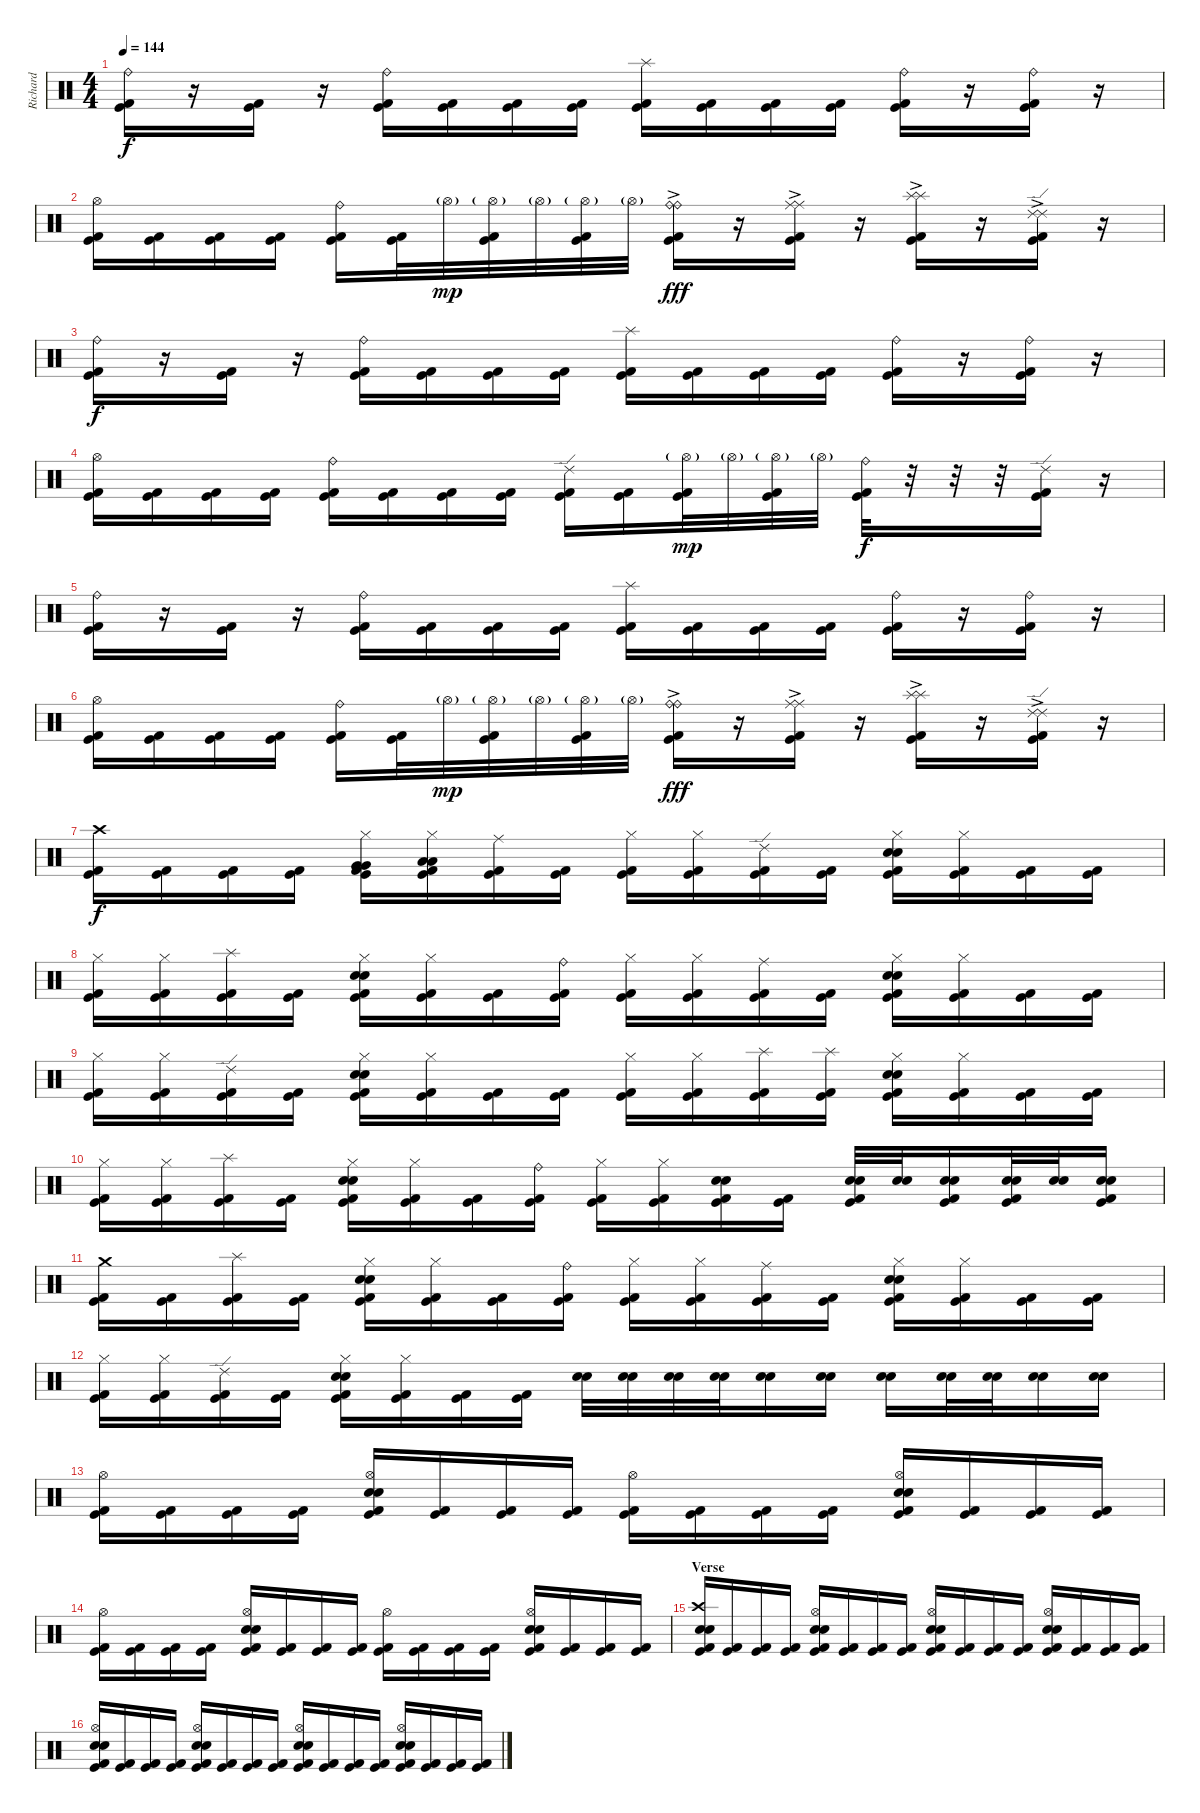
\track ("Richard" "Richard") {instrument percussion}
\staff {score}
\articulation defaults
\ts (4 4)
\tempo 144
\clef neutral
\ks c
("Ride (bell)" "Kick (hit)" "Kick (hit) 2").16{dy f} r.16 ("Kick (hit)" "Kick (hit) 2").16 r.16 ("Ride (bell)" "Kick (hit)" "Kick (hit) 2").16 ("Kick (hit)" "Kick (hit) 2").16 ("Kick (hit)" "Kick (hit) 2").16 ("Kick (hit)" "Kick (hit) 2").16 ("Splash (hit)" "Kick (hit)" "Kick (hit) 2").16 ("Kick (hit)" "Kick (hit) 2").16 ("Kick (hit)" "Kick (hit) 2").16 ("Kick (hit)" "Kick (hit) 2").16 ("Ride (bell)" "Kick (hit)" "Kick (hit) 2").16 r.16 ("Ride (bell)" "Kick (hit)" "Kick (hit) 2").16 r.16 |
("Hi-Hat (open)" "Kick (hit)" "Kick (hit) 2").16 ("Kick (hit)" "Kick (hit) 2").16 ("Kick (hit)" "Kick (hit) 2").16 ("Kick (hit)" "Kick (hit) 2").16 ("Ride (bell)" "Kick (hit)" "Kick (hit) 2").16 ("Kick (hit)" "Kick (hit) 2").32 "Hi-Hat (open)"{g}.32{dy mp} ("Hi-Hat (open)"{g} "Kick (hit)" "Kick (hit) 2").32 "Hi-Hat (open)"{g}.32 ("Hi-Hat (open)"{g} "Kick (hit)" "Kick (hit) 2").32 "Hi-Hat (open)"{g}.32 ("Ride (bell)"{ac} "Ride (bell)"{ac} "Kick (hit)" "Kick (hit) 2").16{dy fff} r.16 ("Ride (middle)"{ac} "Ride (middle)"{ac} "Kick (hit)" "Kick (hit) 2").16 r.16 ("Splash (hit)"{ac} "Splash (hit)"{ac} "Kick (hit)" "Kick (hit) 2").16 r.16 ("Ride (edge) 2"{ac} "Ride (edge) 2"{ac} "Kick (hit)" "Kick (hit) 2").16 r.16 |
("Ride (bell)" "Kick (hit)" "Kick (hit) 2").16{dy f} r.16 ("Kick (hit)" "Kick (hit) 2").16 r.16 ("Ride (bell)" "Kick (hit)" "Kick (hit) 2").16 ("Kick (hit)" "Kick (hit) 2").16 ("Kick (hit)" "Kick (hit) 2").16 ("Kick (hit)" "Kick (hit) 2").16 ("Splash (hit)" "Kick (hit)" "Kick (hit) 2").16 ("Kick (hit)" "Kick (hit) 2").16 ("Kick (hit)" "Kick (hit) 2").16 ("Kick (hit)" "Kick (hit) 2").16 ("Ride (bell)" "Kick (hit)" "Kick (hit) 2").16 r.16 ("Ride (bell)" "Kick (hit)" "Kick (hit) 2").16 r.16 |
("Hi-Hat (open)" "Kick (hit)" "Kick (hit) 2").16 ("Kick (hit)" "Kick (hit) 2").16 ("Kick (hit)" "Kick (hit) 2").16 ("Kick (hit)" "Kick (hit) 2").16 ("Ride (bell)" "Kick (hit)" "Kick (hit) 2").16 ("Kick (hit)" "Kick (hit) 2").16 ("Kick (hit)" "Kick (hit) 2").16 ("Kick (hit)" "Kick (hit) 2").16 ("Ride (edge) 2" "Kick (hit)" "Kick (hit) 2").16 ("Kick (hit)" "Kick (hit) 2").16 ("Hi-Hat (open)"{g} "Kick (hit)" "Kick (hit) 2").32{dy mp} "Hi-Hat (open)"{g}.32 ("Hi-Hat (open)"{g} "Kick (hit)" "Kick (hit) 2").32 "Hi-Hat (open)"{g}.32 ("Ride (bell)" "Kick (hit)" "Kick (hit) 2").32{dy f} r.32 r.32 r.32 ("Ride (edge) 2" "Kick (hit)" "Kick (hit) 2").16 r.16 |
("Ride (bell)" "Kick (hit)" "Kick (hit) 2").16 r.16 ("Kick (hit)" "Kick (hit) 2").16 r.16 ("Ride (bell)" "Kick (hit)" "Kick (hit) 2").16 ("Kick (hit)" "Kick (hit) 2").16 ("Kick (hit)" "Kick (hit) 2").16 ("Kick (hit)" "Kick (hit) 2").16 ("Splash (hit)" "Kick (hit)" "Kick (hit) 2").16 ("Kick (hit)" "Kick (hit) 2").16 ("Kick (hit)" "Kick (hit) 2").16 ("Kick (hit)" "Kick (hit) 2").16 ("Ride (bell)" "Kick (hit)" "Kick (hit) 2").16 r.16 ("Ride (bell)" "Kick (hit)" "Kick (hit) 2").16 r.16 |
("Hi-Hat (open)" "Kick (hit)" "Kick (hit) 2").16 ("Kick (hit)" "Kick (hit) 2").16 ("Kick (hit)" "Kick (hit) 2").16 ("Kick (hit)" "Kick (hit) 2").16 ("Ride (bell)" "Kick (hit)" "Kick (hit) 2").16 ("Kick (hit)" "Kick (hit) 2").32 "Hi-Hat (open)"{g}.32{dy mp} ("Hi-Hat (open)"{g} "Kick (hit)" "Kick (hit) 2").32 "Hi-Hat (open)"{g}.32 ("Hi-Hat (open)"{g} "Kick (hit)" "Kick (hit) 2").32 "Hi-Hat (open)"{g}.32 ("Ride (bell)"{ac} "Ride (bell)"{ac} "Kick (hit)" "Kick (hit) 2").16{dy fff} r.16 ("Ride (middle)"{ac} "Ride (middle)"{ac} "Kick (hit)" "Kick (hit) 2").16 r.16 ("Splash (hit)"{ac} "Splash (hit)"{ac} "Kick (hit)" "Kick (hit) 2").16 r.16 ("Ride (edge) 2"{ac} "Ride (edge) 2"{ac} "Kick (hit)" "Kick (hit) 2").16 r.16 |
("Crash high (hit)" "Kick (hit) 2" "Kick (hit)").16{dy f} ("Kick (hit) 2" "Kick (hit)").16 ("Kick (hit) 2" "Kick (hit)").16 ("Kick (hit) 2" "Kick (hit)").16 ("Hi-Hat (closed)" "Very Low Tom (hit)" "Very Low Tom (hit)" "Kick (hit) 2" "Kick (hit)").16 ("Hi-Hat (closed)" "Low Floor Tom (hit)" "Low Floor Tom (hit)" "Kick (hit) 2" "Kick (hit)").16 ("Ride (middle)" "Kick (hit) 2" "Kick (hit)").16 ("Kick (hit) 2" "Kick (hit)").16 ("Hi-Hat (closed)" "Kick (hit) 2" "Kick (hit)").16 ("Hi-Hat (closed)" "Kick (hit) 2" "Kick (hit)").16 ("Ride (edge) 2" "Kick (hit) 2" "Kick (hit)").16 ("Kick (hit) 2" "Kick (hit)").16 ("Hi-Hat (closed)" "Snare (hit) 2" "Electric Snare (hit)" "Kick (hit) 2" "Kick (hit)").16 ("Hi-Hat (closed)" "Kick (hit) 2" "Kick (hit)").16 ("Kick (hit) 2" "Kick (hit)").16 ("Kick (hit) 2" "Kick (hit)").16 |
("Hi-Hat (closed)" "Kick (hit) 2" "Kick (hit)").16 ("Hi-Hat (closed)" "Kick (hit) 2" "Kick (hit)").16 ("Splash (hit)" "Kick (hit) 2" "Kick (hit)").16 ("Kick (hit) 2" "Kick (hit)").16 ("Hi-Hat (closed)" "Snare (hit) 2" "Electric Snare (hit)" "Kick (hit) 2" "Kick (hit)").16 ("Hi-Hat (closed)" "Kick (hit) 2" "Kick (hit)").16 ("Kick (hit) 2" "Kick (hit)").16 ("Ride (bell)" "Kick (hit) 2" "Kick (hit)").16 ("Hi-Hat (closed)" "Kick (hit) 2" "Kick (hit)").16 ("Hi-Hat (closed)" "Kick (hit) 2" "Kick (hit)").16 ("Ride (middle)" "Kick (hit) 2" "Kick (hit)").16 ("Kick (hit) 2" "Kick (hit)").16 ("Hi-Hat (closed)" "Snare (hit) 2" "Electric Snare (hit)" "Kick (hit) 2" "Kick (hit)").16 ("Hi-Hat (closed)" "Kick (hit) 2" "Kick (hit)").16 ("Kick (hit) 2" "Kick (hit)").16 ("Kick (hit) 2" "Kick (hit)").16 |
("Hi-Hat (closed)" "Kick (hit) 2" "Kick (hit)").16 ("Hi-Hat (closed)" "Kick (hit) 2" "Kick (hit)").16 ("Ride (edge) 2" "Kick (hit) 2" "Kick (hit)").16 ("Kick (hit) 2" "Kick (hit)").16 ("Hi-Hat (closed)" "Snare (hit) 2" "Electric Snare (hit)" "Kick (hit) 2" "Kick (hit)").16 ("Hi-Hat (closed)" "Kick (hit) 2" "Kick (hit)").16 ("Kick (hit) 2" "Kick (hit)").16 ("Kick (hit) 2" "Kick (hit)").16 ("Hi-Hat (closed)" "Kick (hit) 2" "Kick (hit)").16 ("Hi-Hat (closed)" "Kick (hit) 2" "Kick (hit)").16 ("Splash (hit)" "Kick (hit) 2" "Kick (hit)").16 ("Splash (hit)" "Kick (hit) 2" "Kick (hit)").16 ("Hi-Hat (closed)" "Snare (hit) 2" "Electric Snare (hit)" "Kick (hit) 2" "Kick (hit)").16 ("Hi-Hat (closed)" "Kick (hit) 2" "Kick (hit)").16 ("Kick (hit) 2" "Kick (hit)").16 ("Kick (hit) 2" "Kick (hit)").16 |
("Hi-Hat (closed)" "Kick (hit) 2" "Kick (hit)").16 ("Hi-Hat (closed)" "Kick (hit) 2" "Kick (hit)").16 ("Splash (hit)" "Kick (hit) 2" "Kick (hit)").16 ("Kick (hit) 2" "Kick (hit)").16 ("Hi-Hat (closed)" "Snare (hit) 2" "Electric Snare (hit)" "Kick (hit) 2" "Kick (hit)").16 ("Hi-Hat (closed)" "Kick (hit) 2" "Kick (hit)").16 ("Kick (hit) 2" "Kick (hit)").16 ("Ride (bell)" "Kick (hit) 2" "Kick (hit)").16 ("Hi-Hat (closed)" "Kick (hit) 2" "Kick (hit)").16 ("Hi-Hat (closed)" "Kick (hit) 2" "Kick (hit)").16 ("Snare (hit) 2" "Electric Snare (hit)" "Kick (hit) 2" "Kick (hit)").16 ("Kick (hit) 2" "Kick (hit)").16 ("Snare (hit) 2" "Electric Snare (hit)" "Kick (hit) 2" "Kick (hit)").32 ("Snare (hit) 2" "Electric Snare (hit)").32 ("Snare (hit) 2" "Electric Snare (hit)" "Kick (hit) 2" "Kick (hit)").16 ("Snare (hit) 2" "Electric Snare (hit)" "Kick (hit) 2" "Kick (hit)").32 ("Snare (hit) 2" "Electric Snare (hit)").32 ("Snare (hit) 2" "Electric Snare (hit)" "Kick (hit) 2" "Kick (hit)").16 |
("Crash medium (hit)" "Kick (hit) 2" "Kick (hit)").16 ("Kick (hit) 2" "Kick (hit)").16 ("Splash (hit)" "Kick (hit) 2" "Kick (hit)").16 ("Kick (hit) 2" "Kick (hit)").16 ("Hi-Hat (closed)" "Snare (hit) 2" "Electric Snare (hit)" "Kick (hit) 2" "Kick (hit)").16 ("Hi-Hat (closed)" "Kick (hit) 2" "Kick (hit)").16 ("Kick (hit) 2" "Kick (hit)").16 ("Ride (bell)" "Kick (hit) 2" "Kick (hit)").16 ("Hi-Hat (closed)" "Kick (hit) 2" "Kick (hit)").16 ("Hi-Hat (closed)" "Kick (hit) 2" "Kick (hit)").16 ("Ride (middle)" "Kick (hit) 2" "Kick (hit)").16 ("Kick (hit) 2" "Kick (hit)").16 ("Hi-Hat (closed)" "Snare (hit) 2" "Electric Snare (hit)" "Kick (hit) 2" "Kick (hit)").16 ("Hi-Hat (closed)" "Kick (hit) 2" "Kick (hit)").16 ("Kick (hit) 2" "Kick (hit)").16 ("Kick (hit) 2" "Kick (hit)").16 |
("Hi-Hat (closed)" "Kick (hit) 2" "Kick (hit)").16 ("Hi-Hat (closed)" "Kick (hit) 2" "Kick (hit)").16 ("Ride (edge) 2" "Kick (hit) 2" "Kick (hit)").16 ("Kick (hit) 2" "Kick (hit)").16 ("Hi-Hat (closed)" "Snare (hit) 2" "Electric Snare (hit)" "Kick (hit) 2" "Kick (hit)").16 ("Hi-Hat (closed)" "Kick (hit) 2" "Kick (hit)").16 ("Kick (hit) 2" "Kick (hit)").16 ("Kick (hit) 2" "Kick (hit)").16 ("Snare (hit) 2" "Electric Snare (hit)").32 ("Snare (hit) 2" "Electric Snare (hit)").32 ("Snare (hit) 2" "Electric Snare (hit)").32 ("Snare (hit) 2" "Electric Snare (hit)").32 ("Snare (hit) 2" "Electric Snare (hit)").16 ("Snare (hit) 2" "Electric Snare (hit)").16 ("Snare (hit) 2" "Electric Snare (hit)").16 ("Snare (hit) 2" "Electric Snare (hit)").32 ("Snare (hit) 2" "Electric Snare (hit)").32 ("Snare (hit) 2" "Electric Snare (hit)").16 ("Snare (hit) 2" "Electric Snare (hit)").16 |
("Hi-Hat (open)" "Kick (hit) 2" "Kick (hit)").16 ("Kick (hit) 2" "Kick (hit)").16 ("Kick (hit) 2" "Kick (hit)").16 ("Kick (hit) 2" "Kick (hit)").16 ("Hi-Hat (open)" "Snare (hit) 2" "Electric Snare (hit)" "Kick (hit) 2" "Kick (hit)").16 ("Kick (hit) 2" "Kick (hit)").16 ("Kick (hit) 2" "Kick (hit)").16 ("Kick (hit) 2" "Kick (hit)").16 ("Hi-Hat (open)" "Kick (hit) 2" "Kick (hit)").16 ("Kick (hit) 2" "Kick (hit)").16 ("Kick (hit) 2" "Kick (hit)").16 ("Kick (hit) 2" "Kick (hit)").16 ("Hi-Hat (open)" "Snare (hit) 2" "Electric Snare (hit)" "Kick (hit) 2" "Kick (hit)").16 ("Kick (hit) 2" "Kick (hit)").16 ("Kick (hit) 2" "Kick (hit)").16 ("Kick (hit) 2" "Kick (hit)").16 |
("Hi-Hat (open)" "Kick (hit) 2" "Kick (hit)").16 ("Kick (hit) 2" "Kick (hit)").16 ("Kick (hit) 2" "Kick (hit)").16 ("Kick (hit) 2" "Kick (hit)").16 ("Hi-Hat (open)" "Snare (hit) 2" "Electric Snare (hit)" "Kick (hit) 2" "Kick (hit)").16 ("Kick (hit) 2" "Kick (hit)").16 ("Kick (hit) 2" "Kick (hit)").16 ("Kick (hit) 2" "Kick (hit)").16 ("Hi-Hat (open)" "Kick (hit) 2" "Kick (hit)").16 ("Kick (hit) 2" "Kick (hit)").16 ("Kick (hit) 2" "Kick (hit)").16 ("Kick (hit) 2" "Kick (hit)").16 ("Hi-Hat (open)" "Snare (hit) 2" "Electric Snare (hit)" "Kick (hit) 2" "Kick (hit)").16 ("Kick (hit) 2" "Kick (hit)").16 ("Kick (hit) 2" "Kick (hit)").16 ("Kick (hit) 2" "Kick (hit)").16 |
\section ("" "Verse")
("Crash high (hit)" "Snare (hit) 2" "Electric Snare (hit)" "Kick (hit) 2" "Kick (hit)").16 ("Kick (hit) 2" "Kick (hit)").16 ("Kick (hit) 2" "Kick (hit)").16 ("Kick (hit) 2" "Kick (hit)").16 ("Hi-Hat (open)" "Snare (hit) 2" "Electric Snare (hit)" "Kick (hit) 2" "Kick (hit)").16 ("Kick (hit) 2" "Kick (hit)").16 ("Kick (hit) 2" "Kick (hit)").16 ("Kick (hit) 2" "Kick (hit)").16 ("Hi-Hat (open)" "Snare (hit) 2" "Electric Snare (hit)" "Kick (hit) 2" "Kick (hit)").16 ("Kick (hit) 2" "Kick (hit)").16 ("Kick (hit) 2" "Kick (hit)").16 ("Kick (hit) 2" "Kick (hit)").16 ("Hi-Hat (open)" "Snare (hit) 2" "Electric Snare (hit)" "Kick (hit) 2" "Kick (hit)").16 ("Kick (hit) 2" "Kick (hit)").16 ("Kick (hit) 2" "Kick (hit)").16 ("Kick (hit) 2" "Kick (hit)").16 |
("Hi-Hat (open)" "Snare (hit) 2" "Electric Snare (hit)" "Kick (hit) 2" "Kick (hit)").16 ("Kick (hit) 2" "Kick (hit)").16 ("Kick (hit) 2" "Kick (hit)").16 ("Kick (hit) 2" "Kick (hit)").16 ("Hi-Hat (open)" "Snare (hit) 2" "Electric Snare (hit)" "Kick (hit) 2" "Kick (hit)").16 ("Kick (hit) 2" "Kick (hit)").16 ("Kick (hit) 2" "Kick (hit)").16 ("Kick (hit) 2" "Kick (hit)").16 ("Hi-Hat (open)" "Snare (hit) 2" "Electric Snare (hit)" "Kick (hit) 2" "Kick (hit)").16 ("Kick (hit) 2" "Kick (hit)").16 ("Kick (hit) 2" "Kick (hit)").16 ("Kick (hit) 2" "Kick (hit)").16 ("Hi-Hat (open)" "Snare (hit) 2" "Electric Snare (hit)" "Kick (hit) 2" "Kick (hit)").16 ("Kick (hit) 2" "Kick (hit)").16 ("Kick (hit) 2" "Kick (hit)").16 ("Kick (hit) 2" "Kick (hit)").16
